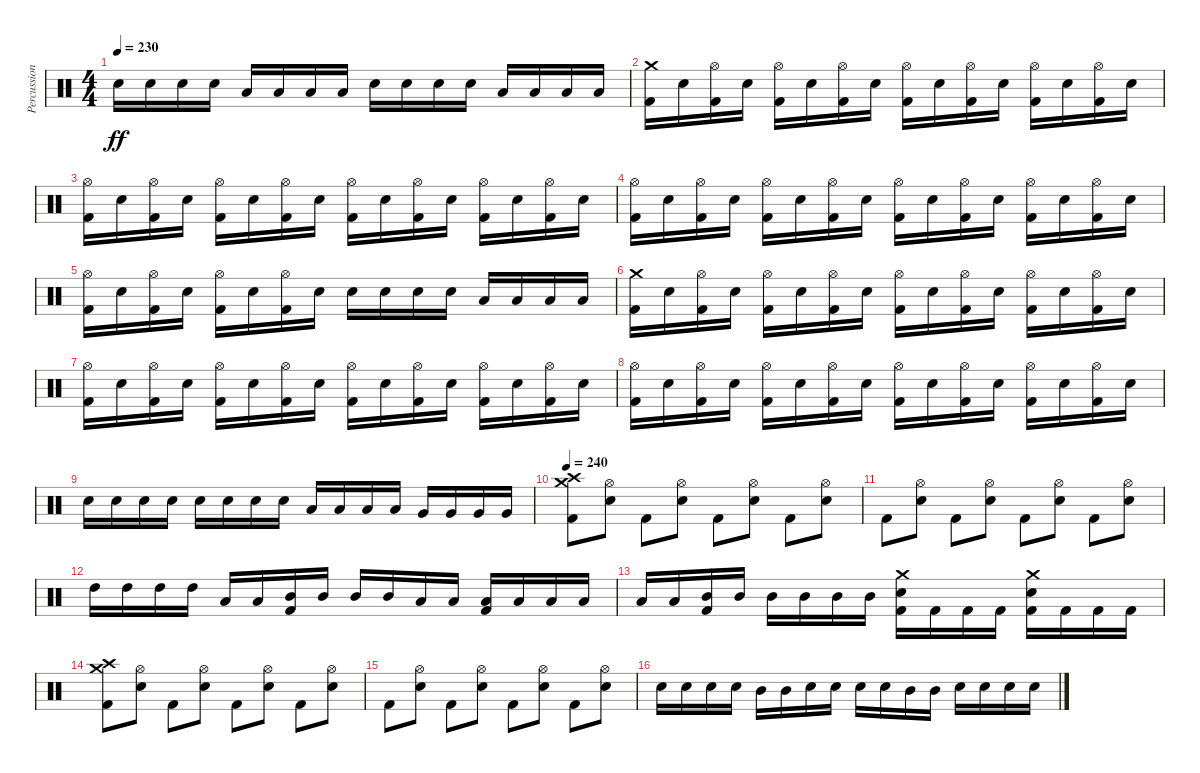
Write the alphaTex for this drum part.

\track ("Percussion" "Percussion") {instrument percussion}
\staff {score}
\articulation defaults
\ts (4 4)
\tempo 230
\clef neutral
\ks c "Electric Snare (hit)".16{dy ff} "Electric Snare (hit)".16 "Electric Snare (hit)".16 "Electric Snare (hit)".16 "Low Tom (hit)".16 "Low Tom (hit)".16 "Low Tom (hit)".16 "Low Tom (hit)".16 "Electric Snare (hit)".16 "Electric Snare (hit)".16 "Electric Snare (hit)".16 "Electric Snare (hit)".16 "Low Tom (hit)".16 "Low Tom (hit)".16 "Low Tom (hit)".16 "Low Tom (hit)".16
|
("Kick (hit) 2" "Crash medium (hit)").16 "Electric Snare (hit)".16 ("Kick (hit) 2" "Hi-Hat (open)").16 "Electric Snare (hit)".16 ("Kick (hit) 2" "Hi-Hat (open)").16 "Electric Snare (hit)".16 ("Kick (hit) 2" "Hi-Hat (open)").16 "Electric Snare (hit)".16 ("Kick (hit) 2" "Hi-Hat (open)").16 "Electric Snare (hit)".16 ("Kick (hit) 2" "Hi-Hat (open)").16 "Electric Snare (hit)".16 ("Kick (hit) 2" "Hi-Hat (open)").16 "Electric Snare (hit)".16 ("Kick (hit) 2" "Hi-Hat (open)").16 "Electric Snare (hit)".16 |
("Kick (hit) 2" "Hi-Hat (open)").16 "Electric Snare (hit)".16 ("Kick (hit) 2" "Hi-Hat (open)").16 "Electric Snare (hit)".16 ("Kick (hit) 2" "Hi-Hat (open)").16 "Electric Snare (hit)".16 ("Kick (hit) 2" "Hi-Hat (open)").16 "Electric Snare (hit)".16 ("Kick (hit) 2" "Hi-Hat (open)").16 "Electric Snare (hit)".16 ("Kick (hit) 2" "Hi-Hat (open)").16 "Electric Snare (hit)".16 ("Kick (hit) 2" "Hi-Hat (open)").16 "Electric Snare (hit)".16 ("Kick (hit) 2" "Hi-Hat (open)").16 "Electric Snare (hit)".16 |
("Kick (hit) 2" "Hi-Hat (open)").16 "Electric Snare (hit)".16 ("Kick (hit) 2" "Hi-Hat (open)").16 "Electric Snare (hit)".16 ("Kick (hit) 2" "Hi-Hat (open)").16 "Electric Snare (hit)".16 ("Kick (hit) 2" "Hi-Hat (open)").16 "Electric Snare (hit)".16 ("Kick (hit) 2" "Hi-Hat (open)").16 "Electric Snare (hit)".16 ("Kick (hit) 2" "Hi-Hat (open)").16 "Electric Snare (hit)".16 ("Kick (hit) 2" "Hi-Hat (open)").16 "Electric Snare (hit)".16 ("Kick (hit) 2" "Hi-Hat (open)").16 "Electric Snare (hit)".16 |
("Kick (hit) 2" "Hi-Hat (open)").16 "Electric Snare (hit)".16 ("Kick (hit) 2" "Hi-Hat (open)").16 "Electric Snare (hit)".16 ("Kick (hit) 2" "Hi-Hat (open)").16 "Electric Snare (hit)".16 ("Kick (hit) 2" "Hi-Hat (open)").16 "Electric Snare (hit)".16 "Electric Snare (hit)".16 "Electric Snare (hit)".16 "Electric Snare (hit)".16 "Electric Snare (hit)".16 "Low Tom (hit)".16 "Low Tom (hit)".16 "Low Tom (hit)".16 "Low Tom (hit)".16 |
("Kick (hit) 2" "Crash medium (hit)").16 "Electric Snare (hit)".16 ("Kick (hit) 2" "Hi-Hat (open)").16 "Electric Snare (hit)".16 ("Kick (hit) 2" "Hi-Hat (open)").16 "Electric Snare (hit)".16 ("Kick (hit) 2" "Hi-Hat (open)").16 "Electric Snare (hit)".16 ("Kick (hit) 2" "Hi-Hat (open)").16 "Electric Snare (hit)".16 ("Kick (hit) 2" "Hi-Hat (open)").16 "Electric Snare (hit)".16 ("Kick (hit) 2" "Hi-Hat (open)").16 "Electric Snare (hit)".16 ("Kick (hit) 2" "Hi-Hat (open)").16 "Electric Snare (hit)".16 |
("Kick (hit) 2" "Hi-Hat (open)").16 "Electric Snare (hit)".16 ("Kick (hit) 2" "Hi-Hat (open)").16 "Electric Snare (hit)".16 ("Kick (hit) 2" "Hi-Hat (open)").16 "Electric Snare (hit)".16 ("Kick (hit) 2" "Hi-Hat (open)").16 "Electric Snare (hit)".16 ("Kick (hit) 2" "Hi-Hat (open)").16 "Electric Snare (hit)".16 ("Kick (hit) 2" "Hi-Hat (open)").16 "Electric Snare (hit)".16 ("Kick (hit) 2" "Hi-Hat (open)").16 "Electric Snare (hit)".16 ("Kick (hit) 2" "Hi-Hat (open)").16 "Electric Snare (hit)".16 |
("Kick (hit) 2" "Hi-Hat (open)").16 "Electric Snare (hit)".16 ("Kick (hit) 2" "Hi-Hat (open)").16 "Electric Snare (hit)".16 ("Kick (hit) 2" "Hi-Hat (open)").16 "Electric Snare (hit)".16 ("Kick (hit) 2" "Hi-Hat (open)").16 "Electric Snare (hit)".16 ("Kick (hit) 2" "Hi-Hat (open)").16 "Electric Snare (hit)".16 ("Kick (hit) 2" "Hi-Hat (open)").16 "Electric Snare (hit)".16 ("Kick (hit) 2" "Hi-Hat (open)").16 "Electric Snare (hit)".16 ("Kick (hit) 2" "Hi-Hat (open)").16 "Electric Snare (hit)".16 |
"Electric Snare (hit)".16 "Electric Snare (hit)".16 "Electric Snare (hit)".16 "Electric Snare (hit)".16 "Electric Snare (hit)".16 "Electric Snare (hit)".16 "Electric Snare (hit)".16 "Electric Snare (hit)".16 "Low Tom (hit)".16 "Low Tom (hit)".16 "Low Tom (hit)".16 "Low Tom (hit)".16 "Very Low Tom (hit)".16 "Very Low Tom (hit)".16 "Very Low Tom (hit)".16 "Very Low Tom (hit)".16 |
\tempo 240
("Kick (hit) 2" "Crash medium (hit)" "Crash high (hit)").8 ("Electric Snare (hit)" "Hi-Hat (open)").8 "Kick (hit) 2".8 ("Electric Snare (hit)" "Hi-Hat (open)").8 "Kick (hit) 2".8 ("Electric Snare (hit)" "Hi-Hat (open)").8 "Kick (hit) 2".8 ("Electric Snare (hit)" "Hi-Hat (open)").8 |
"Kick (hit) 2".8 ("Electric Snare (hit)" "Hi-Hat (open)").8 "Kick (hit) 2".8 ("Electric Snare (hit)" "Hi-Hat (open)").8 "Kick (hit) 2".8 ("Electric Snare (hit)" "Hi-Hat (open)").8 "Kick (hit) 2".8 ("Electric Snare (hit)" "Hi-Hat (open)").8 |
"High Tom (hit)".16 "High Tom (hit)".16 "High Tom (hit)".16 "High Tom (hit)".16 "Low Floor Tom (hit)".16 "Low Floor Tom (hit)".16 ("Kick (hit) 2" "Mid Tom (hit)").16 "Mid Tom (hit)".16 "Mid Tom (hit)".16 "Mid Tom (hit)".16 "Low Floor Tom (hit)".16 "Low Floor Tom (hit)".16 ("Kick (hit) 2" "Low Tom (hit)").16 "Low Tom (hit)".16 "Low Tom (hit)".16 "Low Tom (hit)".16 |
"Low Floor Tom (hit)".16 "Low Floor Tom (hit)".16 ("Kick (hit) 2" "Mid Tom (hit)").16 "Mid Tom (hit)".16 "Mid Tom (hit)".16 "Mid Tom (hit)".16 "Mid Tom (hit)".16 "Mid Tom (hit)".16 ("Kick (hit) 2" "Electric Snare (hit)" "Crash medium (hit)").16 "Kick (hit) 2".16 "Kick (hit) 2".16 "Kick (hit) 2".16 ("Kick (hit) 2" "Electric Snare (hit)" "Crash medium (hit)").16 "Kick (hit) 2".16 "Kick (hit) 2".16 "Kick (hit) 2".16 |
("Kick (hit) 2" "Crash medium (hit)" "Crash high (hit)").8 ("Electric Snare (hit)" "Hi-Hat (open)").8 "Kick (hit) 2".8 ("Electric Snare (hit)" "Hi-Hat (open)").8 "Kick (hit) 2".8 ("Electric Snare (hit)" "Hi-Hat (open)").8 "Kick (hit) 2".8 ("Electric Snare (hit)" "Hi-Hat (open)").8 |
"Kick (hit) 2".8 ("Electric Snare (hit)" "Hi-Hat (open)").8 "Kick (hit) 2".8 ("Electric Snare (hit)" "Hi-Hat (open)").8 "Kick (hit) 2".8 ("Electric Snare (hit)" "Hi-Hat (open)").8 "Kick (hit) 2".8 ("Electric Snare (hit)" "Hi-Hat (open)").8 |
"Electric Snare (hit)".16 "Electric Snare (hit)".16 "Electric Snare (hit)".16 "Electric Snare (hit)".16 "Mid Tom (hit)".16 "Mid Tom (hit)".16 "Electric Snare (hit)".16 "Electric Snare (hit)".16 "Electric Snare (hit)".16 "Electric Snare (hit)".16 "Mid Tom (hit)".16 "Mid Tom (hit)".16 "Electric Snare (hit)".16 "Electric Snare (hit)".16 "Electric Snare (hit)".16 "Electric Snare (hit)".16
